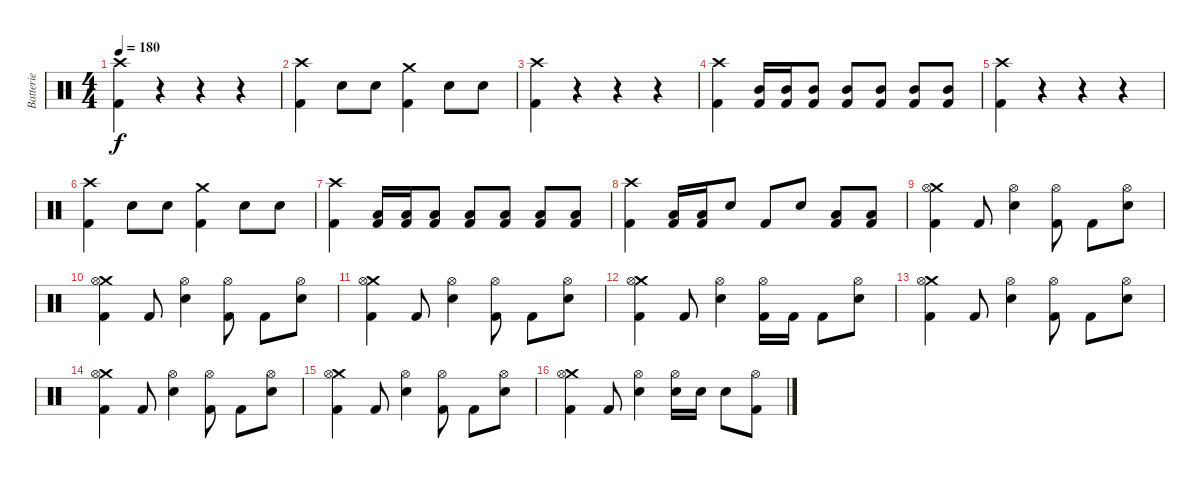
\track ("Batterie" "Batterie") {instrument percussion}
\staff {score}
\articulation defaults
\ts (4 4)
\tempo 180
\clef neutral
\ks c
("Crash high (hit)" "Kick (hit) 2").4{dy f} r.4 r.4 r.4 |
("Crash high (hit)" "Kick (hit) 2").4 "Electric Snare (hit)".8 "Electric Snare (hit)".8 ("Crash medium (hit)" "Kick (hit) 2").4 "Electric Snare (hit)".8 "Electric Snare (hit)".8 |
("Crash high (hit)" "Kick (hit) 2").4 r.4 r.4 r.4 |
("Crash high (hit)" "Kick (hit) 2").4 ("Mid Tom (hit)" "Kick (hit) 2").16 ("Mid Tom (hit)" "Kick (hit) 2").16 ("Mid Tom (hit)" "Kick (hit) 2").8 ("Mid Tom (hit)" "Kick (hit) 2").8 ("Mid Tom (hit)" "Kick (hit) 2").8 ("Mid Tom (hit)" "Kick (hit) 2").8 ("Mid Tom (hit)" "Kick (hit) 2").8 |
("Crash high (hit)" "Kick (hit) 2").4 r.4 r.4 r.4 |
("Crash high (hit)" "Kick (hit) 2").4 "Electric Snare (hit)".8 "Electric Snare (hit)".8 ("Crash medium (hit)" "Kick (hit) 2").4 "Electric Snare (hit)".8 "Electric Snare (hit)".8 |
("Crash high (hit)" "Kick (hit) 2").4 ("Low Tom (hit)" "Kick (hit) 2").16 ("Low Tom (hit)" "Kick (hit) 2").16 ("Low Tom (hit)" "Kick (hit) 2").8 ("Low Tom (hit)" "Kick (hit) 2").8 ("Low Tom (hit)" "Kick (hit) 2").8 ("Low Tom (hit)" "Kick (hit) 2").8 ("Low Tom (hit)" "Kick (hit) 2").8 |
("Crash high (hit)" "Kick (hit) 2").4 ("Low Tom (hit)" "Kick (hit) 2").16 ("Low Tom (hit)" "Kick (hit) 2").16 "Electric Snare (hit)".8 "Kick (hit) 2".8 "Electric Snare (hit)".8 ("Low Tom (hit)" "Kick (hit) 2").8 ("Low Tom (hit)" "Kick (hit) 2").8 |
("Crash medium (hit)" "Hi-Hat (open)" "Kick (hit) 2").4 "Kick (hit) 2".8 ("Hi-Hat (open)" "Electric Snare (hit)").4 ("Hi-Hat (open)" "Kick (hit) 2").8 "Kick (hit) 2".8 ("Hi-Hat (open)" "Electric Snare (hit)").8 |
("Crash medium (hit)" "Hi-Hat (open)" "Kick (hit) 2").4 "Kick (hit) 2".8 ("Hi-Hat (open)" "Electric Snare (hit)").4 ("Hi-Hat (open)" "Kick (hit) 2").8 "Kick (hit) 2".8 ("Hi-Hat (open)" "Electric Snare (hit)").8 |
("Crash medium (hit)" "Hi-Hat (open)" "Kick (hit) 2").4 "Kick (hit) 2".8 ("Hi-Hat (open)" "Electric Snare (hit)").4 ("Hi-Hat (open)" "Kick (hit) 2").8 "Kick (hit) 2".8 ("Hi-Hat (open)" "Electric Snare (hit)").8 |
("Crash medium (hit)" "Hi-Hat (open)" "Kick (hit) 2").4 "Kick (hit) 2".8 ("Hi-Hat (open)" "Electric Snare (hit)").4 ("Hi-Hat (open)" "Kick (hit) 2").16 "Kick (hit) 2".16 "Kick (hit) 2".8 ("Hi-Hat (open)" "Electric Snare (hit)").8 |
("Crash medium (hit)" "Hi-Hat (open)" "Kick (hit) 2").4 "Kick (hit) 2".8 ("Hi-Hat (open)" "Electric Snare (hit)").4 ("Hi-Hat (open)" "Kick (hit) 2").8 "Kick (hit) 2".8 ("Hi-Hat (open)" "Electric Snare (hit)").8 |
("Crash medium (hit)" "Hi-Hat (open)" "Kick (hit) 2").4 "Kick (hit) 2".8 ("Hi-Hat (open)" "Electric Snare (hit)").4 ("Hi-Hat (open)" "Kick (hit) 2").8 "Kick (hit) 2".8 ("Hi-Hat (open)" "Electric Snare (hit)").8 |
("Crash medium (hit)" "Hi-Hat (open)" "Kick (hit) 2").4 "Kick (hit) 2".8 ("Hi-Hat (open)" "Electric Snare (hit)").4 ("Hi-Hat (open)" "Kick (hit) 2").8 "Kick (hit) 2".8 ("Hi-Hat (open)" "Electric Snare (hit)").8 |
("Crash medium (hit)" "Hi-Hat (open)" "Kick (hit) 2").4 "Kick (hit) 2".8 ("Hi-Hat (open)" "Electric Snare (hit)").4 ("Hi-Hat (open)" "Electric Snare (hit)").16 "Electric Snare (hit)".16 "Electric Snare (hit)".8 ("Hi-Hat (open)" "Kick (hit) 2").8
